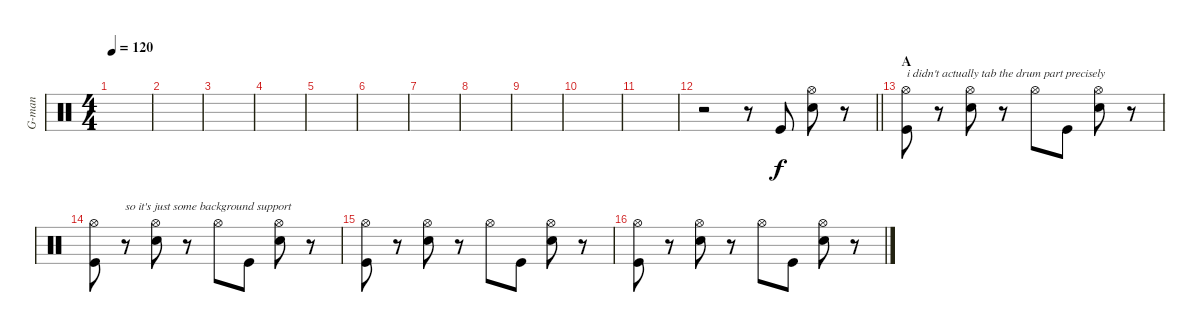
\track ("G-man" "G-man") {instrument percussion}
\staff {score}
\articulation defaults
\ts (4 4)
\tempo 120
\clef neutral
\ks c
|
|
|
|
|
|
|
|
|
|
|
\barLineRight lightlight
r.2 r.8 "Kick (hit)".8 ("Hi-Hat (open)" "Snare (hit) 2").8 r.8 |
\section ("" "A")
("Hi-Hat (open)" "Kick (hit)").8{txt "i didn't actually tab the drum part precisely"} r.8 ("Hi-Hat (open)" "Snare (hit) 2").8 r.8 "Hi-Hat (open)".8 "Kick (hit)".8 ("Hi-Hat (open)" "Snare (hit) 2").8 r.8 |
("Hi-Hat (open)" "Kick (hit)").8 r.8{txt "so it's just some background support"} ("Hi-Hat (open)" "Snare (hit) 2").8 r.8 "Hi-Hat (open)".8 "Kick (hit)".8 ("Hi-Hat (open)" "Snare (hit) 2").8 r.8 |
("Hi-Hat (open)" "Kick (hit)").8 r.8 ("Hi-Hat (open)" "Snare (hit) 2").8 r.8 "Hi-Hat (open)".8 "Kick (hit)".8 ("Hi-Hat (open)" "Snare (hit) 2").8 r.8 |
("Hi-Hat (open)" "Kick (hit)").8 r.8 ("Hi-Hat (open)" "Snare (hit) 2").8 r.8 "Hi-Hat (open)".8 "Kick (hit)".8 ("Hi-Hat (open)" "Snare (hit) 2").8 r.8
